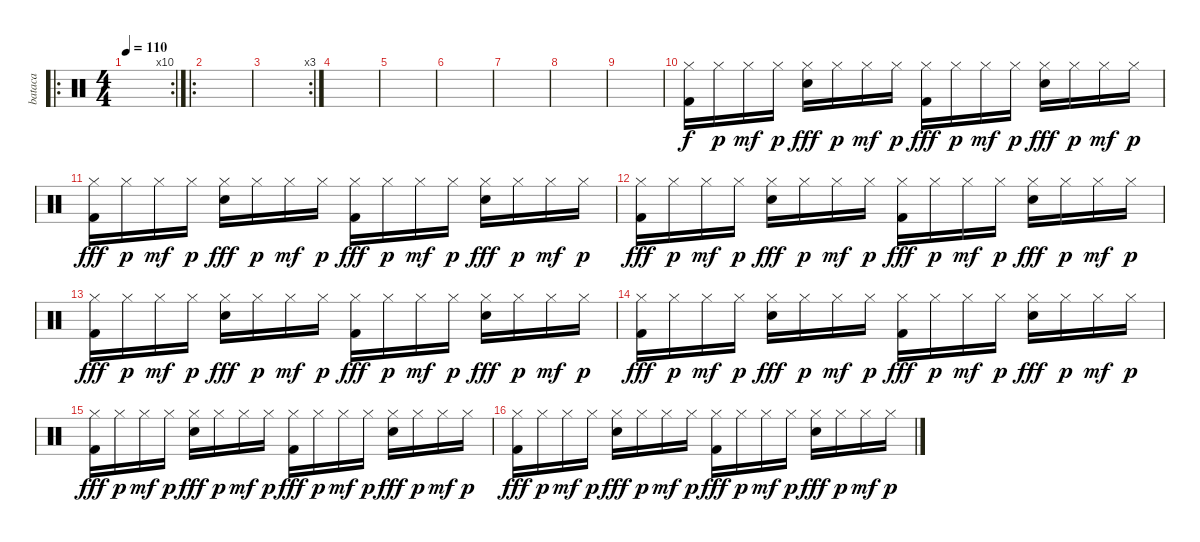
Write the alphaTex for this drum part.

\track ("bataca" "bataca") {instrument percussion}
\staff {score}
\articulation defaults
\ro
\rc 10
\ts (4 4)
\tempo 110
\clef neutral
\ks c
|
\ro
|
\rc 3
|
|
|
|
|
|
|
("Hi-Hat (closed)" "Kick (hit) 2").16 "Hi-Hat (closed)".16{dy p} "Hi-Hat (closed)".16{dy mf} "Hi-Hat (closed)".16{dy p} ("Hi-Hat (closed)" "Electric Snare (hit)").16{dy fff} "Hi-Hat (closed)".16{dy p} "Hi-Hat (closed)".16{dy mf} "Hi-Hat (closed)".16{dy p} ("Hi-Hat (closed)" "Kick (hit) 2").16{dy fff} "Hi-Hat (closed)".16{dy p} "Hi-Hat (closed)".16{dy mf} "Hi-Hat (closed)".16{dy p} ("Hi-Hat (closed)" "Electric Snare (hit)").16{dy fff} "Hi-Hat (closed)".16{dy p} "Hi-Hat (closed)".16{dy mf} "Hi-Hat (closed)".16{dy p} |
("Hi-Hat (closed)" "Kick (hit) 2").16{dy fff} "Hi-Hat (closed)".16{dy p} "Hi-Hat (closed)".16{dy mf} "Hi-Hat (closed)".16{dy p} ("Hi-Hat (closed)" "Electric Snare (hit)").16{dy fff} "Hi-Hat (closed)".16{dy p} "Hi-Hat (closed)".16{dy mf} "Hi-Hat (closed)".16{dy p} ("Hi-Hat (closed)" "Kick (hit) 2").16{dy fff} "Hi-Hat (closed)".16{dy p} "Hi-Hat (closed)".16{dy mf} "Hi-Hat (closed)".16{dy p} ("Hi-Hat (closed)" "Electric Snare (hit)").16{dy fff} "Hi-Hat (closed)".16{dy p} "Hi-Hat (closed)".16{dy mf} "Hi-Hat (closed)".16{dy p} |
("Hi-Hat (closed)" "Kick (hit) 2").16{dy fff} "Hi-Hat (closed)".16{dy p} "Hi-Hat (closed)".16{dy mf} "Hi-Hat (closed)".16{dy p} ("Hi-Hat (closed)" "Electric Snare (hit)").16{dy fff} "Hi-Hat (closed)".16{dy p} "Hi-Hat (closed)".16{dy mf} "Hi-Hat (closed)".16{dy p} ("Hi-Hat (closed)" "Kick (hit) 2").16{dy fff} "Hi-Hat (closed)".16{dy p} "Hi-Hat (closed)".16{dy mf} "Hi-Hat (closed)".16{dy p} ("Hi-Hat (closed)" "Electric Snare (hit)").16{dy fff} "Hi-Hat (closed)".16{dy p} "Hi-Hat (closed)".16{dy mf} "Hi-Hat (closed)".16{dy p} |
("Hi-Hat (closed)" "Kick (hit) 2").16{dy fff} "Hi-Hat (closed)".16{dy p} "Hi-Hat (closed)".16{dy mf} "Hi-Hat (closed)".16{dy p} ("Hi-Hat (closed)" "Electric Snare (hit)").16{dy fff} "Hi-Hat (closed)".16{dy p} "Hi-Hat (closed)".16{dy mf} "Hi-Hat (closed)".16{dy p} ("Hi-Hat (closed)" "Kick (hit) 2").16{dy fff} "Hi-Hat (closed)".16{dy p} "Hi-Hat (closed)".16{dy mf} "Hi-Hat (closed)".16{dy p} ("Hi-Hat (closed)" "Electric Snare (hit)").16{dy fff} "Hi-Hat (closed)".16{dy p} "Hi-Hat (closed)".16{dy mf} "Hi-Hat (closed)".16{dy p} |
("Hi-Hat (closed)" "Kick (hit) 2").16{dy fff} "Hi-Hat (closed)".16{dy p} "Hi-Hat (closed)".16{dy mf} "Hi-Hat (closed)".16{dy p} ("Hi-Hat (closed)" "Electric Snare (hit)").16{dy fff} "Hi-Hat (closed)".16{dy p} "Hi-Hat (closed)".16{dy mf} "Hi-Hat (closed)".16{dy p} ("Hi-Hat (closed)" "Kick (hit) 2").16{dy fff} "Hi-Hat (closed)".16{dy p} "Hi-Hat (closed)".16{dy mf} "Hi-Hat (closed)".16{dy p} ("Hi-Hat (closed)" "Electric Snare (hit)").16{dy fff} "Hi-Hat (closed)".16{dy p} "Hi-Hat (closed)".16{dy mf} "Hi-Hat (closed)".16{dy p} |
("Hi-Hat (closed)" "Kick (hit) 2").16{dy fff} "Hi-Hat (closed)".16{dy p} "Hi-Hat (closed)".16{dy mf} "Hi-Hat (closed)".16{dy p} ("Hi-Hat (closed)" "Electric Snare (hit)").16{dy fff} "Hi-Hat (closed)".16{dy p} "Hi-Hat (closed)".16{dy mf} "Hi-Hat (closed)".16{dy p} ("Hi-Hat (closed)" "Kick (hit) 2").16{dy fff} "Hi-Hat (closed)".16{dy p} "Hi-Hat (closed)".16{dy mf} "Hi-Hat (closed)".16{dy p} ("Hi-Hat (closed)" "Electric Snare (hit)").16{dy fff} "Hi-Hat (closed)".16{dy p} "Hi-Hat (closed)".16{dy mf} "Hi-Hat (closed)".16{dy p} |
("Hi-Hat (closed)" "Kick (hit) 2").16{dy fff} "Hi-Hat (closed)".16{dy p} "Hi-Hat (closed)".16{dy mf} "Hi-Hat (closed)".16{dy p} ("Hi-Hat (closed)" "Electric Snare (hit)").16{dy fff} "Hi-Hat (closed)".16{dy p} "Hi-Hat (closed)".16{dy mf} "Hi-Hat (closed)".16{dy p} ("Hi-Hat (closed)" "Kick (hit) 2").16{dy fff} "Hi-Hat (closed)".16{dy p} "Hi-Hat (closed)".16{dy mf} "Hi-Hat (closed)".16{dy p} ("Hi-Hat (closed)" "Electric Snare (hit)").16{dy fff} "Hi-Hat (closed)".16{dy p} "Hi-Hat (closed)".16{dy mf} "Hi-Hat (closed)".16{dy p}
